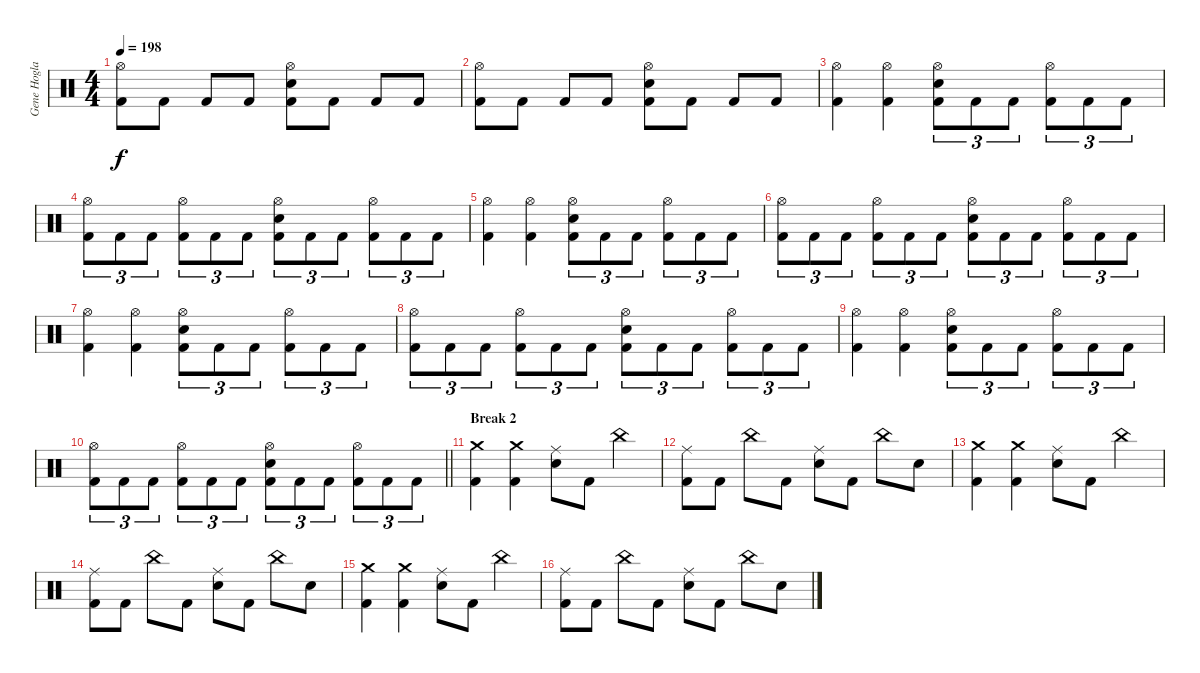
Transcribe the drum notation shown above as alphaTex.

\track ("Gene Hoglan" "Gene Hogla") {instrument percussion}
\staff {score}
\articulation defaults
\ts (4 4)
\tempo 198
\clef neutral
\ks c
("Hi-Hat (open)" "Kick (hit) 2").8{dy f} "Kick (hit) 2".8 "Kick (hit) 2".8 "Kick (hit) 2".8 ("Hi-Hat (open)" "Snare (hit) 2" "Kick (hit) 2").8 "Kick (hit) 2".8 "Kick (hit) 2".8 "Kick (hit) 2".8 |
("Hi-Hat (open)" "Kick (hit) 2").8 "Kick (hit) 2".8 "Kick (hit) 2".8 "Kick (hit) 2".8 ("Hi-Hat (open)" "Snare (hit) 2" "Kick (hit) 2").8 "Kick (hit) 2".8 "Kick (hit) 2".8 "Kick (hit) 2".8 |
("Hi-Hat (open)" "Kick (hit) 2").4 ("Hi-Hat (open)" "Kick (hit) 2").4 ("Hi-Hat (open)" "Snare (hit) 2" "Kick (hit) 2").8{tu (3 2)} "Kick (hit) 2".8{tu (3 2)} "Kick (hit) 2".8{tu (3 2)} ("Hi-Hat (open)" "Kick (hit) 2").8{tu (3 2)} "Kick (hit) 2".8{tu (3 2)} "Kick (hit) 2".8{tu (3 2)} |
("Hi-Hat (open)" "Kick (hit) 2").8{tu (3 2)} "Kick (hit) 2".8{tu (3 2)} "Kick (hit) 2".8{tu (3 2)} ("Hi-Hat (open)" "Kick (hit) 2").8{tu (3 2)} "Kick (hit) 2".8{tu (3 2)} "Kick (hit) 2".8{tu (3 2)} ("Hi-Hat (open)" "Snare (hit) 2" "Kick (hit) 2").8{tu (3 2)} "Kick (hit) 2".8{tu (3 2)} "Kick (hit) 2".8{tu (3 2)} ("Hi-Hat (open)" "Kick (hit) 2").8{tu (3 2)} "Kick (hit) 2".8{tu (3 2)} "Kick (hit) 2".8{tu (3 2)} |
("Hi-Hat (open)" "Kick (hit) 2").4 ("Hi-Hat (open)" "Kick (hit) 2").4 ("Hi-Hat (open)" "Snare (hit) 2" "Kick (hit) 2").8{tu (3 2)} "Kick (hit) 2".8{tu (3 2)} "Kick (hit) 2".8{tu (3 2)} ("Hi-Hat (open)" "Kick (hit) 2").8{tu (3 2)} "Kick (hit) 2".8{tu (3 2)} "Kick (hit) 2".8{tu (3 2)} |
("Hi-Hat (open)" "Kick (hit) 2").8{tu (3 2)} "Kick (hit) 2".8{tu (3 2)} "Kick (hit) 2".8{tu (3 2)} ("Hi-Hat (open)" "Kick (hit) 2").8{tu (3 2)} "Kick (hit) 2".8{tu (3 2)} "Kick (hit) 2".8{tu (3 2)} ("Hi-Hat (open)" "Snare (hit) 2" "Kick (hit) 2").8{tu (3 2)} "Kick (hit) 2".8{tu (3 2)} "Kick (hit) 2".8{tu (3 2)} ("Hi-Hat (open)" "Kick (hit) 2").8{tu (3 2)} "Kick (hit) 2".8{tu (3 2)} "Kick (hit) 2".8{tu (3 2)} |
("Hi-Hat (open)" "Kick (hit) 2").4 ("Hi-Hat (open)" "Kick (hit) 2").4 ("Hi-Hat (open)" "Snare (hit) 2" "Kick (hit) 2").8{tu (3 2)} "Kick (hit) 2".8{tu (3 2)} "Kick (hit) 2".8{tu (3 2)} ("Hi-Hat (open)" "Kick (hit) 2").8{tu (3 2)} "Kick (hit) 2".8{tu (3 2)} "Kick (hit) 2".8{tu (3 2)} |
("Hi-Hat (open)" "Kick (hit) 2").8{tu (3 2)} "Kick (hit) 2".8{tu (3 2)} "Kick (hit) 2".8{tu (3 2)} ("Hi-Hat (open)" "Kick (hit) 2").8{tu (3 2)} "Kick (hit) 2".8{tu (3 2)} "Kick (hit) 2".8{tu (3 2)} ("Hi-Hat (open)" "Snare (hit) 2" "Kick (hit) 2").8{tu (3 2)} "Kick (hit) 2".8{tu (3 2)} "Kick (hit) 2".8{tu (3 2)} ("Hi-Hat (open)" "Kick (hit) 2").8{tu (3 2)} "Kick (hit) 2".8{tu (3 2)} "Kick (hit) 2".8{tu (3 2)} |
("Hi-Hat (open)" "Kick (hit) 2").4 ("Hi-Hat (open)" "Kick (hit) 2").4 ("Hi-Hat (open)" "Snare (hit) 2" "Kick (hit) 2").8{tu (3 2)} "Kick (hit) 2".8{tu (3 2)} "Kick (hit) 2".8{tu (3 2)} ("Hi-Hat (open)" "Kick (hit) 2").8{tu (3 2)} "Kick (hit) 2".8{tu (3 2)} "Kick (hit) 2".8{tu (3 2)} |
\barLineRight lightlight
("Hi-Hat (open)" "Kick (hit) 2").8{tu (3 2)} "Kick (hit) 2".8{tu (3 2)} "Kick (hit) 2".8{tu (3 2)} ("Hi-Hat (open)" "Kick (hit) 2").8{tu (3 2)} "Kick (hit) 2".8{tu (3 2)} "Kick (hit) 2".8{tu (3 2)} ("Hi-Hat (open)" "Snare (hit) 2" "Kick (hit) 2").8{tu (3 2)} "Kick (hit) 2".8{tu (3 2)} "Kick (hit) 2".8{tu (3 2)} ("Hi-Hat (open)" "Kick (hit) 2").8{tu (3 2)} "Kick (hit) 2".8{tu (3 2)} "Kick (hit) 2".8{tu (3 2)} |
\section ("" "Break 2")
("Crash medium (hit)" "Kick (hit) 2").4 ("Crash medium (hit)" "Kick (hit) 2").4 ("Ride (middle)" "Snare (hit) 2").8 "Kick (hit) 2".8 "China (hit)".4 |
("Ride (middle)" "Kick (hit) 2").8 "Kick (hit) 2".8 "China (hit)".8 "Kick (hit) 2".8 ("Ride (middle)" "Snare (hit) 2").8 "Kick (hit) 2".8 "China (hit)".8 "Snare (hit) 2".8 |
("Crash medium (hit)" "Kick (hit) 2").4 ("Crash medium (hit)" "Kick (hit) 2").4 ("Ride (middle)" "Snare (hit) 2").8 "Kick (hit) 2".8 "China (hit)".4 |
("Ride (middle)" "Kick (hit) 2").8 "Kick (hit) 2".8 "China (hit)".8 "Kick (hit) 2".8 ("Ride (middle)" "Snare (hit) 2").8 "Kick (hit) 2".8 "China (hit)".8 "Snare (hit) 2".8 |
("Crash medium (hit)" "Kick (hit) 2").4 ("Crash medium (hit)" "Kick (hit) 2").4 ("Ride (middle)" "Snare (hit) 2").8 "Kick (hit) 2".8 "China (hit)".4 |
("Ride (middle)" "Kick (hit) 2").8 "Kick (hit) 2".8 "China (hit)".8 "Kick (hit) 2".8 ("Ride (middle)" "Snare (hit) 2").8 "Kick (hit) 2".8 "China (hit)".8 "Snare (hit) 2".8
